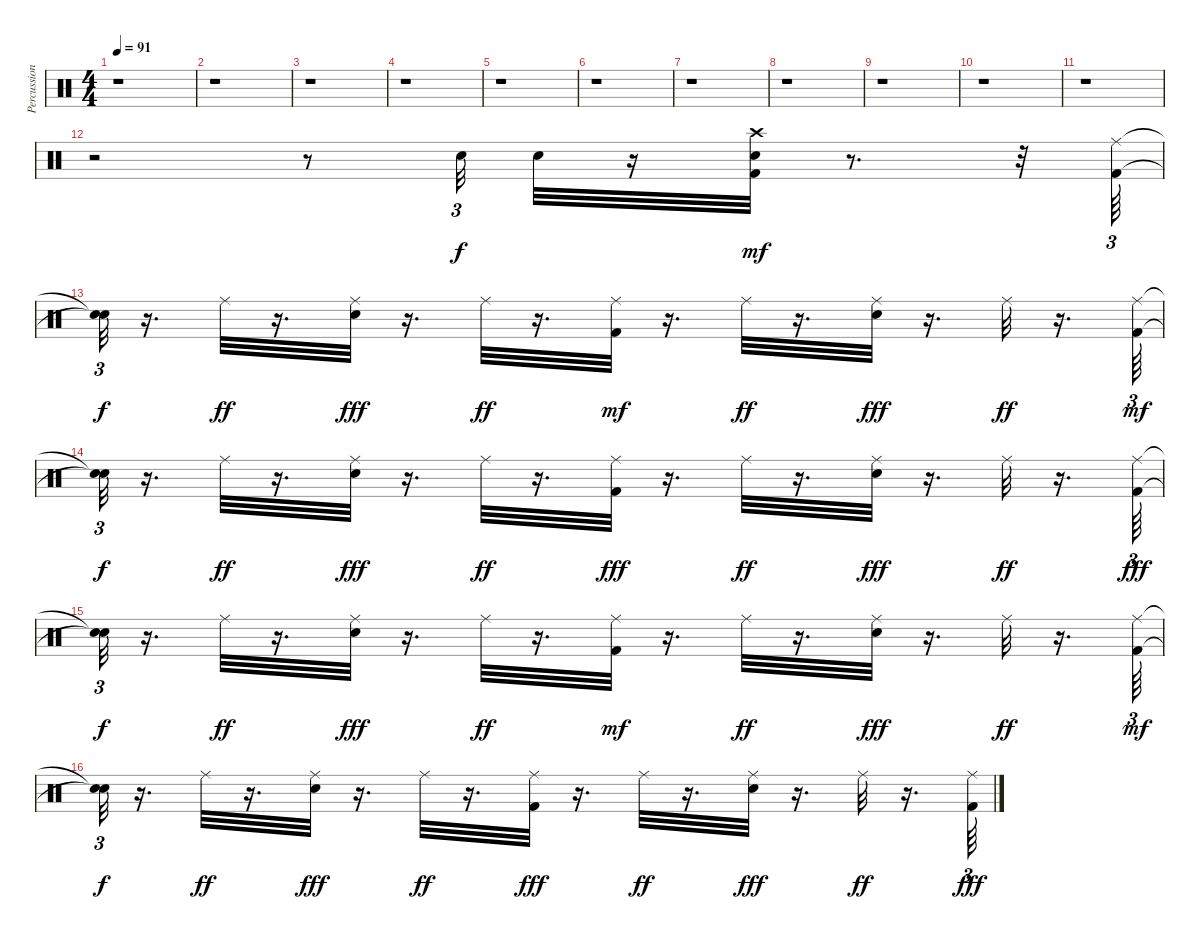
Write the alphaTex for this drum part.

\track ("Percussion" "Percussion") {instrument percussion}
\staff {score}
\articulation defaults
\ts (4 4)
\tempo 91
\clef neutral
\ks c
r.1{dy mp} |
r.1 |
r.1 |
r.1 |
r.1 |
r.1 |
r.1 |
r.1 |
r.1 |
r.1 |
r.1 |
r.2 r.8 "Snare (hit) 2".32{tu (3 2) dy f} "Snare (hit) 2".32 r.16 ("Kick (hit) 2" "Snare (hit) 2" "Crash high (hit)").32{dy mf} r.8{d} r.32 ("Ride (middle)" "Kick (hit) 2").64{tu (3 2)} |
("Snare (hit)"{t} "Snare (hit)"{t}).32{tu (3 2) dy f} r.16{d} "Ride (middle)".32{dy ff} r.16{d} ("Snare (hit) 2" "Ride (middle)").32{dy fff} r.16{d} "Ride (middle)".32{dy ff} r.16{d} ("Ride (middle)" "Kick (hit) 2").32{dy mf} r.16{d} "Ride (middle)".32{dy ff} r.16{d} ("Snare (hit) 2" "Ride (middle)").32{dy fff} r.16{d} "Ride (middle)".32{dy ff} r.16{d} ("Ride (middle)" "Kick (hit) 2").64{tu (3 2) dy mf} |
("Snare (hit)"{t} "Snare (hit)"{t}).32{tu (3 2) dy f} r.16{d} "Ride (middle)".32{dy ff} r.16{d} ("Snare (hit) 2" "Ride (middle)").32{dy fff} r.16{d} "Ride (middle)".32{dy ff} r.16{d} ("Kick (hit) 2" "Ride (middle)").32{dy fff} r.16{d} "Ride (middle)".32{dy ff} r.16{d} ("Snare (hit) 2" "Ride (middle)").32{dy fff} r.16{d} "Ride (middle)".32{dy ff} r.16{d} ("Kick (hit) 2" "Ride (middle)").64{tu (3 2) dy fff} |
("Snare (hit)"{t} "Snare (hit)"{t}).32{tu (3 2) dy f} r.16{d} "Ride (middle)".32{dy ff} r.16{d} ("Snare (hit) 2" "Ride (middle)").32{dy fff} r.16{d} "Ride (middle)".32{dy ff} r.16{d} ("Ride (middle)" "Kick (hit) 2").32{dy mf} r.16{d} "Ride (middle)".32{dy ff} r.16{d} ("Snare (hit) 2" "Ride (middle)").32{dy fff} r.16{d} "Ride (middle)".32{dy ff} r.16{d} ("Ride (middle)" "Kick (hit) 2").64{tu (3 2) dy mf} |
("Snare (hit)"{t} "Snare (hit)"{t}).32{tu (3 2) dy f} r.16{d} "Ride (middle)".32{dy ff} r.16{d} ("Snare (hit) 2" "Ride (middle)").32{dy fff} r.16{d} "Ride (middle)".32{dy ff} r.16{d} ("Kick (hit) 2" "Ride (middle)").32{dy fff} r.16{d} "Ride (middle)".32{dy ff} r.16{d} ("Snare (hit) 2" "Ride (middle)").32{dy fff} r.16{d} "Ride (middle)".32{dy ff} r.16{d} ("Kick (hit) 2" "Ride (middle)").64{tu (3 2) dy fff}
